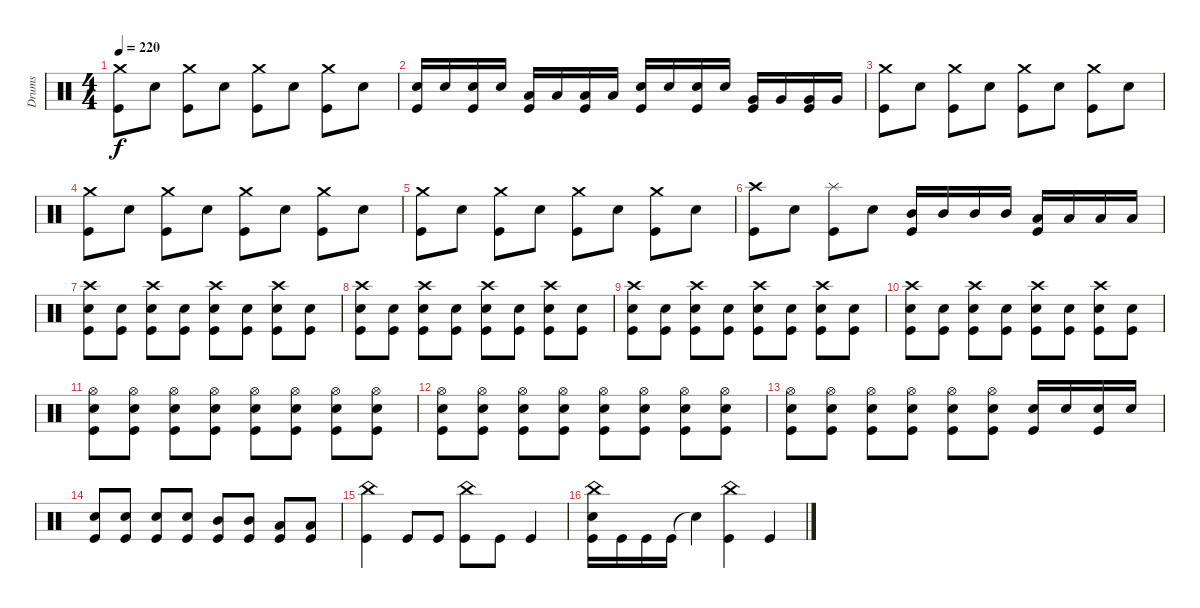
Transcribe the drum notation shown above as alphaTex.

\track ("Drums" "Drums") {instrument percussion}
\staff {score}
\articulation defaults
\ts (4 4)
\tempo 220
\clef neutral
\ks c
("Crash medium (hit)" "Kick (hit)").8{dy f} "Snare (hit) 2".8 ("Crash medium (hit)" "Kick (hit)").8 "Snare (hit) 2".8 ("Crash medium (hit)" "Kick (hit)").8 "Snare (hit) 2".8 ("Crash medium (hit)" "Kick (hit)").8 "Snare (hit) 2".8 |
("Snare (hit) 2" "Kick (hit)").16 "Snare (hit) 2".16 ("Snare (hit) 2" "Kick (hit)").16 "Snare (hit) 2".16 ("Low Tom (hit)" "Kick (hit)").16 "Low Tom (hit)".16 ("Low Tom (hit)" "Kick (hit)").16 "Low Tom (hit)".16 ("Snare (hit) 2" "Kick (hit)").16 "Snare (hit) 2".16 ("Snare (hit) 2" "Kick (hit)").16 "Snare (hit) 2".16 ("Very Low Tom (hit)" "Kick (hit)").16 "Very Low Tom (hit)".16 ("Very Low Tom (hit)" "Kick (hit)").16 "Very Low Tom (hit)".16 |
("Crash medium (hit)" "Kick (hit)").8 "Snare (hit) 2".8 ("Crash medium (hit)" "Kick (hit)").8 "Snare (hit) 2".8 ("Crash medium (hit)" "Kick (hit)").8 "Snare (hit) 2".8 ("Crash medium (hit)" "Kick (hit)").8 "Snare (hit) 2".8 |
("Crash medium (hit)" "Kick (hit)").8 "Snare (hit) 2".8 ("Crash medium (hit)" "Kick (hit)").8 "Snare (hit) 2".8 ("Crash medium (hit)" "Kick (hit)").8 "Snare (hit) 2".8 ("Crash medium (hit)" "Kick (hit)").8 "Snare (hit) 2".8 |
("Crash medium (hit)" "Kick (hit)").8 "Snare (hit) 2".8 ("Crash medium (hit)" "Kick (hit)").8 "Snare (hit) 2".8 ("Crash medium (hit)" "Kick (hit)").8 "Snare (hit) 2".8 ("Crash medium (hit)" "Kick (hit)").8 "Snare (hit) 2".8 |
("Crash high (hit)" "Kick (hit)").8 "Snare (hit) 2".8 ("Splash (hit)" "Kick (hit)").8 "Snare (hit) 2".8 ("Mid Tom (hit)" "Kick (hit)").16 "Mid Tom (hit)".16 "Mid Tom (hit)".16 "Mid Tom (hit)".16 ("Low Tom (hit)" "Kick (hit)").16 "Low Tom (hit)".16 "Low Tom (hit)".16 "Low Tom (hit)".16 |
("Crash high (hit)" "Snare (hit) 2" "Kick (hit)").8 ("Snare (hit) 2" "Kick (hit)").8 ("Crash high (hit)" "Snare (hit) 2" "Kick (hit)").8 ("Snare (hit) 2" "Kick (hit)").8 ("Crash high (hit)" "Snare (hit) 2" "Kick (hit)").8 ("Snare (hit) 2" "Kick (hit)").8 ("Crash high (hit)" "Snare (hit) 2" "Kick (hit)").8 ("Snare (hit) 2" "Kick (hit)").8 |
("Crash high (hit)" "Snare (hit) 2" "Kick (hit)").8 ("Snare (hit) 2" "Kick (hit)").8 ("Crash high (hit)" "Snare (hit) 2" "Kick (hit)").8 ("Snare (hit) 2" "Kick (hit)").8 ("Crash high (hit)" "Snare (hit) 2" "Kick (hit)").8 ("Snare (hit) 2" "Kick (hit)").8 ("Crash high (hit)" "Snare (hit) 2" "Kick (hit)").8 ("Snare (hit) 2" "Kick (hit)").8 |
("Crash high (hit)" "Snare (hit) 2" "Kick (hit)").8 ("Snare (hit) 2" "Kick (hit)").8 ("Crash high (hit)" "Snare (hit) 2" "Kick (hit)").8 ("Snare (hit) 2" "Kick (hit)").8 ("Crash high (hit)" "Snare (hit) 2" "Kick (hit)").8 ("Snare (hit) 2" "Kick (hit)").8 ("Crash high (hit)" "Snare (hit) 2" "Kick (hit)").8 ("Snare (hit) 2" "Kick (hit)").8 |
("Crash high (hit)" "Snare (hit) 2" "Kick (hit)").8 ("Snare (hit) 2" "Kick (hit)").8 ("Crash high (hit)" "Snare (hit) 2" "Kick (hit)").8 ("Snare (hit) 2" "Kick (hit)").8 ("Crash high (hit)" "Snare (hit) 2" "Kick (hit)").8 ("Snare (hit) 2" "Kick (hit)").8 ("Crash high (hit)" "Snare (hit) 2" "Kick (hit)").8 ("Snare (hit) 2" "Kick (hit)").8 |
("Hi-Hat (open)" "Snare (hit) 2" "Kick (hit)").8 ("Hi-Hat (open)" "Snare (hit) 2" "Kick (hit)").8 ("Hi-Hat (open)" "Snare (hit) 2" "Kick (hit)").8 ("Hi-Hat (open)" "Snare (hit) 2" "Kick (hit)").8 ("Hi-Hat (open)" "Snare (hit) 2" "Kick (hit)").8 ("Hi-Hat (open)" "Snare (hit) 2" "Kick (hit)").8 ("Hi-Hat (open)" "Snare (hit) 2" "Kick (hit)").8 ("Hi-Hat (open)" "Snare (hit) 2" "Kick (hit)").8 |
("Hi-Hat (open)" "Snare (hit) 2" "Kick (hit)").8 ("Hi-Hat (open)" "Snare (hit) 2" "Kick (hit)").8 ("Hi-Hat (open)" "Snare (hit) 2" "Kick (hit)").8 ("Hi-Hat (open)" "Snare (hit) 2" "Kick (hit)").8 ("Hi-Hat (open)" "Snare (hit) 2" "Kick (hit)").8 ("Hi-Hat (open)" "Snare (hit) 2" "Kick (hit)").8 ("Hi-Hat (open)" "Snare (hit) 2" "Kick (hit)").8 ("Hi-Hat (open)" "Snare (hit) 2" "Kick (hit)").8 |
("Hi-Hat (open)" "Snare (hit) 2" "Kick (hit)").8 ("Hi-Hat (open)" "Snare (hit) 2" "Kick (hit)").8 ("Hi-Hat (open)" "Snare (hit) 2" "Kick (hit)").8 ("Hi-Hat (open)" "Snare (hit) 2" "Kick (hit)").8 ("Hi-Hat (open)" "Snare (hit) 2" "Kick (hit)").8 ("Hi-Hat (open)" "Snare (hit) 2" "Kick (hit)").8 ("Snare (hit) 2" "Kick (hit)").16 "Snare (hit) 2".16 ("Snare (hit) 2" "Kick (hit)").16 "Snare (hit) 2".16 |
("Snare (hit) 2" "Kick (hit)").8 ("Snare (hit) 2" "Kick (hit)").8 ("Snare (hit) 2" "Kick (hit)").8 ("Snare (hit) 2" "Kick (hit)").8 ("Mid Tom (hit)" "Kick (hit)").8 ("Mid Tom (hit)" "Kick (hit)").8 ("Low Tom (hit)" "Kick (hit)").8 ("Low Tom (hit)" "Kick (hit)").8 |
("China (hit)" "Kick (hit)").4 "Kick (hit)".8 "Kick (hit)".8 ("China (hit)" "Kick (hit)").8 "Kick (hit)".8 "Kick (hit)".4 |
("China (hit)" "Snare (hit) 2" "Kick (hit)").16 "Kick (hit)".16 "Kick (hit)".16 "Kick (hit)".16 "Snare (hit)"{t}.4 ("China (hit)" "Kick (hit)").4 "Kick (hit)".4
